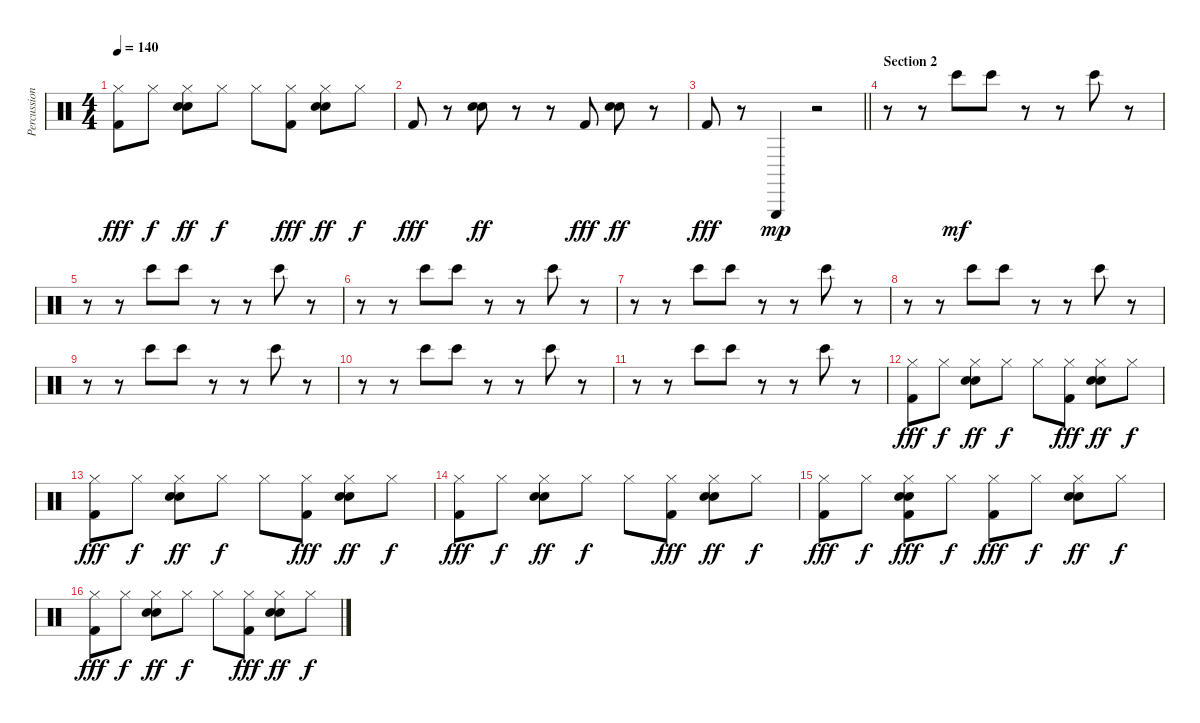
\track ("Percussion" "Percussion") {instrument percussion}
\staff {score}
\articulation defaults
\ts (4 4)
\tempo 140
\clef neutral
\ks c
("Hi-Hat (closed)" "Kick (hit) 2").8{dy fff} "Hi-Hat (closed)".8{dy f} ("Hi-Hat (closed)" "Electric Snare (hit)" "Snare (hit) 2").8{dy ff} "Hi-Hat (closed)".8{dy f} "Hi-Hat (closed)".8 ("Hi-Hat (closed)" "Kick (hit) 2").8{dy fff} ("Hi-Hat (closed)" "Electric Snare (hit)" "Snare (hit) 2").8{dy ff} "Hi-Hat (closed)".8{dy f} |
"Kick (hit) 2".8{dy fff} r.8 ("Electric Snare (hit)" "Snare (hit) 2").8{dy ff} r.8 r.8 "Kick (hit) 2".8{dy fff} ("Electric Snare (hit)" "Snare (hit) 2").8{dy ff} r.8 |
\barLineRight lightlight "Kick (hit) 2".8{dy fff}
r.8 "Triangle (hit)".4{dy mp} r.2 |
\section ("" "Section 2")
r.8 r.8 "Bongo High (hit)".8{dy mf} "Bongo High (hit)".8 r.8 r.8 "Bongo High (hit)".8 r.8 |
r.8 r.8 "Bongo High (hit)".8 "Bongo High (hit)".8 r.8 r.8 "Bongo High (hit)".8 r.8 |
r.8 r.8 "Bongo High (hit)".8 "Bongo High (hit)".8 r.8 r.8 "Bongo High (hit)".8 r.8 |
r.8 r.8 "Bongo High (hit)".8 "Bongo High (hit)".8 r.8 r.8 "Bongo High (hit)".8 r.8 |
r.8 r.8 "Bongo High (hit)".8 "Bongo High (hit)".8 r.8 r.8 "Bongo High (hit)".8 r.8 |
r.8 r.8 "Bongo High (hit)".8 "Bongo High (hit)".8 r.8 r.8 "Bongo High (hit)".8 r.8 |
r.8 r.8 "Bongo High (hit)".8 "Bongo High (hit)".8 r.8 r.8 "Bongo High (hit)".8 r.8 |
r.8 r.8 "Bongo High (hit)".8 "Bongo High (hit)".8 r.8 r.8 "Bongo High (hit)".8 r.8 |
("Hi-Hat (closed)" "Kick (hit) 2").8{dy fff} "Hi-Hat (closed)".8{dy f} ("Hi-Hat (closed)" "Electric Snare (hit)" "Snare (hit) 2").8{dy ff} "Hi-Hat (closed)".8{dy f} "Hi-Hat (closed)".8 ("Hi-Hat (closed)" "Kick (hit) 2").8{dy fff} ("Hi-Hat (closed)" "Electric Snare (hit)" "Snare (hit) 2").8{dy ff} "Hi-Hat (closed)".8{dy f} |
("Hi-Hat (closed)" "Kick (hit) 2").8{dy fff} "Hi-Hat (closed)".8{dy f} ("Hi-Hat (closed)" "Electric Snare (hit)" "Snare (hit) 2").8{dy ff} "Hi-Hat (closed)".8{dy f} "Hi-Hat (closed)".8 ("Hi-Hat (closed)" "Kick (hit) 2").8{dy fff} ("Hi-Hat (closed)" "Electric Snare (hit)" "Snare (hit) 2").8{dy ff} "Hi-Hat (closed)".8{dy f} |
("Hi-Hat (closed)" "Kick (hit) 2").8{dy fff} "Hi-Hat (closed)".8{dy f} ("Hi-Hat (closed)" "Electric Snare (hit)" "Snare (hit) 2").8{dy ff} "Hi-Hat (closed)".8{dy f} "Hi-Hat (closed)".8 ("Hi-Hat (closed)" "Kick (hit) 2").8{dy fff} ("Hi-Hat (closed)" "Electric Snare (hit)" "Snare (hit) 2").8{dy ff} "Hi-Hat (closed)".8{dy f} |
("Hi-Hat (closed)" "Kick (hit) 2").8{dy fff} "Hi-Hat (closed)".8{dy f} ("Hi-Hat (closed)" "Electric Snare (hit)" "Snare (hit) 2" "Kick (hit) 2").8{dy fff} "Hi-Hat (closed)".8{dy f} ("Hi-Hat (closed)" "Kick (hit) 2").8{dy fff} "Hi-Hat (closed)".8{dy f} ("Hi-Hat (closed)" "Electric Snare (hit)" "Snare (hit) 2").8{dy ff} "Hi-Hat (closed)".8{dy f} |
("Hi-Hat (closed)" "Kick (hit) 2").8{dy fff} "Hi-Hat (closed)".8{dy f} ("Hi-Hat (closed)" "Electric Snare (hit)" "Snare (hit) 2").8{dy ff} "Hi-Hat (closed)".8{dy f} "Hi-Hat (closed)".8 ("Hi-Hat (closed)" "Kick (hit) 2").8{dy fff} ("Hi-Hat (closed)" "Electric Snare (hit)" "Snare (hit) 2").8{dy ff} "Hi-Hat (closed)".8{dy f}
